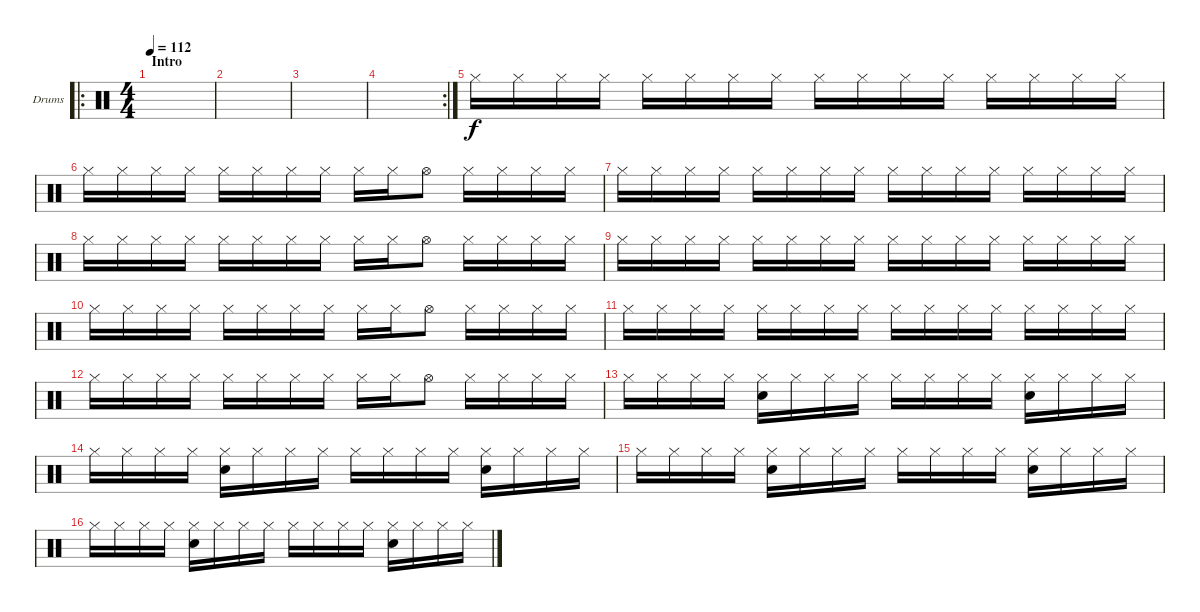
\defaultSystemsLayout 4
\bracketExtendMode groupsimilarinstruments
\firstSystemTrackNameOrientation horizontal
\otherSystemsTrackNameOrientation horizontal
\track ("Drumkit" "Drums") {instrument percussion}
\staff {score}
\articulation defaults
\ro
\ts (4 4)
\section ("" "Intro")
\tempo 112
\clef neutral
\scale
0.502222
\ks c
|
\scale
0.248889 |
\scale
0.248889 |
\rc 2
\scale
0.356322 |
"Hi-Hat (closed)".16 "Hi-Hat (closed)".16 "Hi-Hat (closed)".16 "Hi-Hat (closed)".16 "Hi-Hat (closed)".16 "Hi-Hat (closed)".16 "Hi-Hat (closed)".16 "Hi-Hat (closed)".16 "Hi-Hat (closed)".16 "Hi-Hat (closed)".16 "Hi-Hat (closed)".16 "Hi-Hat (closed)".16 "Hi-Hat (closed)".16 "Hi-Hat (closed)".16 "Hi-Hat (closed)".16 "Hi-Hat (closed)".16 |
"Hi-Hat (closed)".16 "Hi-Hat (closed)".16 "Hi-Hat (closed)".16 "Hi-Hat (closed)".16 "Hi-Hat (closed)".16 "Hi-Hat (closed)".16 "Hi-Hat (closed)".16 "Hi-Hat (closed)".16 "Hi-Hat (closed)".16 "Hi-Hat (closed)".16 "Hi-Hat (open)".8 "Hi-Hat (closed)".16 "Hi-Hat (closed)".16 "Hi-Hat (closed)".16 "Hi-Hat (closed)".16 |
"Hi-Hat (closed)".16 "Hi-Hat (closed)".16 "Hi-Hat (closed)".16 "Hi-Hat (closed)".16 "Hi-Hat (closed)".16 "Hi-Hat (closed)".16 "Hi-Hat (closed)".16 "Hi-Hat (closed)".16 "Hi-Hat (closed)".16 "Hi-Hat (closed)".16 "Hi-Hat (closed)".16 "Hi-Hat (closed)".16 "Hi-Hat (closed)".16 "Hi-Hat (closed)".16 "Hi-Hat (closed)".16 "Hi-Hat (closed)".16 |
"Hi-Hat (closed)".16 "Hi-Hat (closed)".16 "Hi-Hat (closed)".16 "Hi-Hat (closed)".16 "Hi-Hat (closed)".16 "Hi-Hat (closed)".16 "Hi-Hat (closed)".16 "Hi-Hat (closed)".16 "Hi-Hat (closed)".16 "Hi-Hat (closed)".16 "Hi-Hat (open)".8 "Hi-Hat (closed)".16 "Hi-Hat (closed)".16 "Hi-Hat (closed)".16 "Hi-Hat (closed)".16 |
\scale
0.321839 "Hi-Hat (closed)".16 "Hi-Hat (closed)".16 "Hi-Hat (closed)".16 "Hi-Hat (closed)".16 "Hi-Hat (closed)".16 "Hi-Hat (closed)".16 "Hi-Hat (closed)".16 "Hi-Hat (closed)".16 "Hi-Hat (closed)".16 "Hi-Hat (closed)".16 "Hi-Hat (closed)".16 "Hi-Hat (closed)".16 "Hi-Hat (closed)".16 "Hi-Hat (closed)".16 "Hi-Hat (closed)".16 "Hi-Hat (closed)".16 |
\scale
0.321839 "Hi-Hat (closed)".16 "Hi-Hat (closed)".16 "Hi-Hat (closed)".16 "Hi-Hat (closed)".16 "Hi-Hat (closed)".16 "Hi-Hat (closed)".16 "Hi-Hat (closed)".16 "Hi-Hat (closed)".16 "Hi-Hat (closed)".16 "Hi-Hat (closed)".16 "Hi-Hat (open)".8 "Hi-Hat (closed)".16 "Hi-Hat (closed)".16 "Hi-Hat (closed)".16 "Hi-Hat (closed)".16 |
"Hi-Hat (closed)".16 "Hi-Hat (closed)".16 "Hi-Hat (closed)".16 "Hi-Hat (closed)".16 "Hi-Hat (closed)".16 "Hi-Hat (closed)".16 "Hi-Hat (closed)".16 "Hi-Hat (closed)".16 "Hi-Hat (closed)".16 "Hi-Hat (closed)".16 "Hi-Hat (closed)".16 "Hi-Hat (closed)".16 "Hi-Hat (closed)".16 "Hi-Hat (closed)".16 "Hi-Hat (closed)".16 "Hi-Hat (closed)".16 |
"Hi-Hat (closed)".16 "Hi-Hat (closed)".16 "Hi-Hat (closed)".16 "Hi-Hat (closed)".16 "Hi-Hat (closed)".16 "Hi-Hat (closed)".16 "Hi-Hat (closed)".16 "Hi-Hat (closed)".16 "Hi-Hat (closed)".16 "Hi-Hat (closed)".16 "Hi-Hat (open)".8 "Hi-Hat (closed)".16 "Hi-Hat (closed)".16 "Hi-Hat (closed)".16 "Hi-Hat (closed)".16 |
"Hi-Hat (closed)".16{dy f} "Hi-Hat (closed)".16 "Hi-Hat (closed)".16 "Hi-Hat (closed)".16 ("Hi-Hat (closed)" "Snare (hit) 2").16 "Hi-Hat (closed)".16 "Hi-Hat (closed)".16 "Hi-Hat (closed)".16 "Hi-Hat (closed)".16 "Hi-Hat (closed)".16 "Hi-Hat (closed)".16 "Hi-Hat (closed)".16 ("Hi-Hat (closed)" "Snare (hit) 2").16 "Hi-Hat (closed)".16 "Hi-Hat (closed)".16 "Hi-Hat (closed)".16 |
"Hi-Hat (closed)".16 "Hi-Hat (closed)".16 "Hi-Hat (closed)".16 "Hi-Hat (closed)".16 ("Hi-Hat (closed)" "Snare (hit) 2").16 "Hi-Hat (closed)".16 "Hi-Hat (closed)".16 "Hi-Hat (closed)".16 "Hi-Hat (closed)".16 "Hi-Hat (closed)".16 "Hi-Hat (closed)".16 "Hi-Hat (closed)".16 ("Hi-Hat (closed)" "Snare (hit) 2").16 "Hi-Hat (closed)".16 "Hi-Hat (closed)".16 "Hi-Hat (closed)".16 |
"Hi-Hat (closed)".16 "Hi-Hat (closed)".16 "Hi-Hat (closed)".16 "Hi-Hat (closed)".16 ("Hi-Hat (closed)" "Snare (hit) 2").16 "Hi-Hat (closed)".16 "Hi-Hat (closed)".16 "Hi-Hat (closed)".16 "Hi-Hat (closed)".16 "Hi-Hat (closed)".16 "Hi-Hat (closed)".16 "Hi-Hat (closed)".16 ("Hi-Hat (closed)" "Snare (hit) 2").16 "Hi-Hat (closed)".16 "Hi-Hat (closed)".16 "Hi-Hat (closed)".16 |
"Hi-Hat (closed)".16 "Hi-Hat (closed)".16 "Hi-Hat (closed)".16 "Hi-Hat (closed)".16 ("Hi-Hat (closed)" "Snare (hit) 2").16 "Hi-Hat (closed)".16 "Hi-Hat (closed)".16 "Hi-Hat (closed)".16 "Hi-Hat (closed)".16 "Hi-Hat (closed)".16 "Hi-Hat (closed)".16 "Hi-Hat (closed)".16 ("Hi-Hat (closed)" "Snare (hit) 2").16 "Hi-Hat (closed)".16 "Hi-Hat (closed)".16 "Hi-Hat (closed)".16
